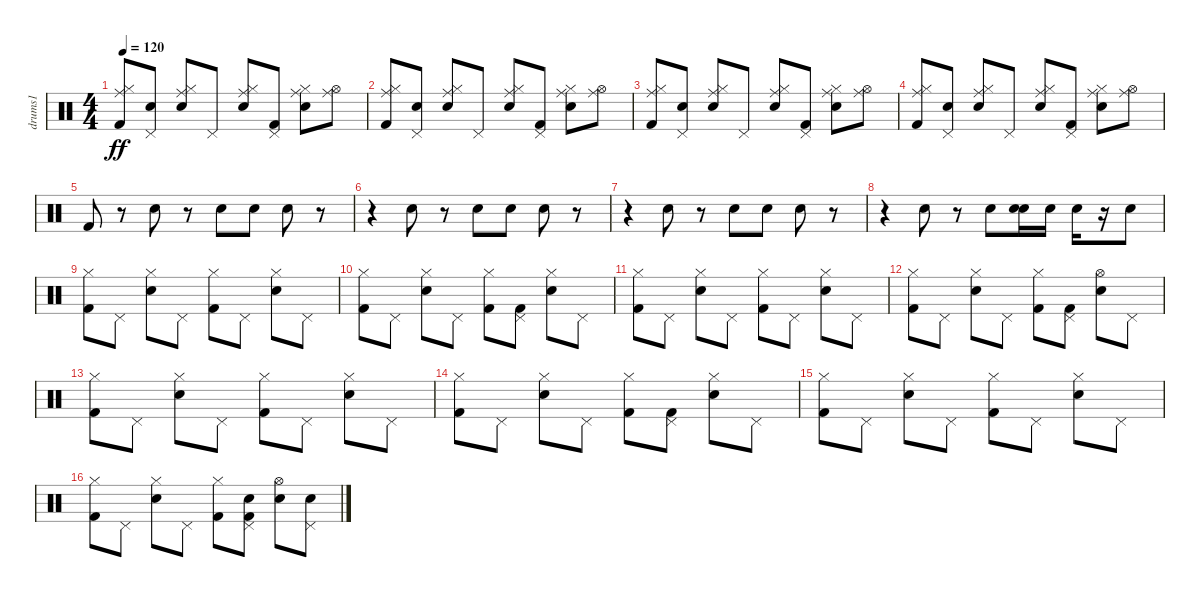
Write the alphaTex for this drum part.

\track ("drums1" "drums1") {instrument percussion}
\staff {score}
\articulation defaults
\ts (4 4)
\tempo 120
\clef neutral
\ks c
("Ride (middle)" "Hi-Hat (closed)" "Kick (hit) 2").8{dy ff} ("Pedal Hi-Hat (hit)" "Hand Clap (hit)").8 ("Ride (middle)" "Hi-Hat (closed)" "Snare (hit) 2").8 "Pedal Hi-Hat (hit)".8 ("Ride (middle)" "Hi-Hat (closed)" "Hand Clap (hit)").8 ("Kick (hit) 2" "Pedal Hi-Hat (hit)").8 ("Ride (middle)" "Hi-Hat (closed)" "Snare (hit) 2").8 ("Ride (middle)" "Hi-Hat (open)").8 |
("Ride (middle)" "Hi-Hat (closed)" "Kick (hit) 2").8 ("Pedal Hi-Hat (hit)" "Hand Clap (hit)").8 ("Ride (middle)" "Hi-Hat (closed)" "Snare (hit) 2").8 "Pedal Hi-Hat (hit)".8 ("Ride (middle)" "Hi-Hat (closed)" "Hand Clap (hit)").8 ("Kick (hit) 2" "Pedal Hi-Hat (hit)").8 ("Ride (middle)" "Hi-Hat (closed)" "Snare (hit) 2").8 ("Ride (middle)" "Hi-Hat (open)").8 |
("Ride (middle)" "Hi-Hat (closed)" "Kick (hit) 2").8 ("Pedal Hi-Hat (hit)" "Hand Clap (hit)").8 ("Ride (middle)" "Hi-Hat (closed)" "Snare (hit) 2").8 "Pedal Hi-Hat (hit)".8 ("Ride (middle)" "Hi-Hat (closed)" "Hand Clap (hit)").8 ("Kick (hit) 2" "Pedal Hi-Hat (hit)").8 ("Ride (middle)" "Hi-Hat (closed)" "Snare (hit) 2").8 ("Ride (middle)" "Hi-Hat (open)").8 |
("Ride (middle)" "Hi-Hat (closed)" "Kick (hit) 2").8 ("Pedal Hi-Hat (hit)" "Hand Clap (hit)").8 ("Ride (middle)" "Hi-Hat (closed)" "Snare (hit) 2").8 "Pedal Hi-Hat (hit)".8 ("Ride (middle)" "Hi-Hat (closed)" "Hand Clap (hit)").8 ("Kick (hit) 2" "Pedal Hi-Hat (hit)").8 ("Ride (middle)" "Hi-Hat (closed)" "Snare (hit) 2").8 ("Ride (middle)" "Hi-Hat (open)").8 |
"Kick (hit) 2".8 r.8 "Snare (hit) 2".8 r.8 "Hand Clap (hit)".8 "Hand Clap (hit)".8 "Snare (hit) 2".8 r.8 |
r.4 "Snare (hit) 2".8 r.8 "Hand Clap (hit)".8 "Hand Clap (hit)".8 "Snare (hit) 2".8 r.8 |
r.4 "Snare (hit) 2".8 r.8 "Hand Clap (hit)".8 "Hand Clap (hit)".8 "Snare (hit) 2".8 r.8 |
r.4 "Snare (hit) 2".8 r.8 "Hand Clap (hit)".8 ("Snare (hit) 2" "Hand Clap (hit)").16 "Snare (hit) 2".16 "Snare (hit) 2".16 r.16 "Snare (hit) 2".8 |
("Kick (hit) 2" "Hi-Hat (closed)").8 "Pedal Hi-Hat (hit)".8 ("Hi-Hat (closed)" "Snare (hit) 2").8 "Pedal Hi-Hat (hit)".8 ("Kick (hit) 2" "Hi-Hat (closed)").8 "Pedal Hi-Hat (hit)".8 ("Snare (hit) 2" "Hi-Hat (closed)").8 "Pedal Hi-Hat (hit)".8 |
("Hi-Hat (closed)" "Kick (hit) 2").8 "Pedal Hi-Hat (hit)".8 ("Hi-Hat (closed)" "Snare (hit) 2").8 "Pedal Hi-Hat (hit)".8 ("Kick (hit) 2" "Hi-Hat (closed)").8 ("Pedal Hi-Hat (hit)" "Kick (hit) 2").8 ("Snare (hit) 2" "Hi-Hat (closed)").8 "Pedal Hi-Hat (hit)".8 |
("Hi-Hat (closed)" "Kick (hit) 2").8 "Pedal Hi-Hat (hit)".8 ("Hi-Hat (closed)" "Snare (hit) 2").8 "Pedal Hi-Hat (hit)".8 ("Hi-Hat (closed)" "Kick (hit) 2").8 "Pedal Hi-Hat (hit)".8 ("Hi-Hat (closed)" "Snare (hit) 2").8 "Pedal Hi-Hat (hit)".8 |
("Hi-Hat (closed)" "Kick (hit) 2").8 "Pedal Hi-Hat (hit)".8 ("Snare (hit) 2" "Hi-Hat (closed)").8 "Pedal Hi-Hat (hit)".8 ("Kick (hit) 2" "Hi-Hat (closed)").8 ("Kick (hit) 2" "Pedal Hi-Hat (hit)").8 ("Snare (hit) 2" "Hi-Hat (open)").8 "Pedal Hi-Hat (hit)".8 |
("Hi-Hat (closed)" "Kick (hit) 2").8 "Pedal Hi-Hat (hit)".8 ("Snare (hit) 2" "Hi-Hat (closed)").8 "Pedal Hi-Hat (hit)".8 ("Hi-Hat (closed)" "Kick (hit) 2").8 "Pedal Hi-Hat (hit)".8 ("Snare (hit) 2" "Hi-Hat (closed)").8 "Pedal Hi-Hat (hit)".8 |
("Kick (hit) 2" "Hi-Hat (closed)").8 "Pedal Hi-Hat (hit)".8 ("Snare (hit) 2" "Hi-Hat (closed)").8 "Pedal Hi-Hat (hit)".8 ("Kick (hit) 2" "Hi-Hat (closed)").8 ("Pedal Hi-Hat (hit)" "Kick (hit) 2").8 ("Snare (hit) 2" "Hi-Hat (closed)").8 "Pedal Hi-Hat (hit)".8 |
("Hi-Hat (closed)" "Kick (hit) 2").8 "Pedal Hi-Hat (hit)".8 ("Hi-Hat (closed)" "Snare (hit) 2").8 "Pedal Hi-Hat (hit)".8 ("Kick (hit) 2" "Hi-Hat (closed)").8 "Pedal Hi-Hat (hit)".8 ("Snare (hit) 2" "Hi-Hat (closed)").8 "Pedal Hi-Hat (hit)".8 |
("Kick (hit) 2" "Hi-Hat (closed)").8 "Pedal Hi-Hat (hit)".8 ("Snare (hit) 2" "Hi-Hat (closed)").8 "Pedal Hi-Hat (hit)".8 ("Kick (hit) 2" "Hi-Hat (closed)").8 ("Snare (hit) 2" "Kick (hit) 2" "Pedal Hi-Hat (hit)").8 ("Snare (hit) 2" "Hi-Hat (open)").8 ("Snare (hit) 2" "Pedal Hi-Hat (hit)").8
